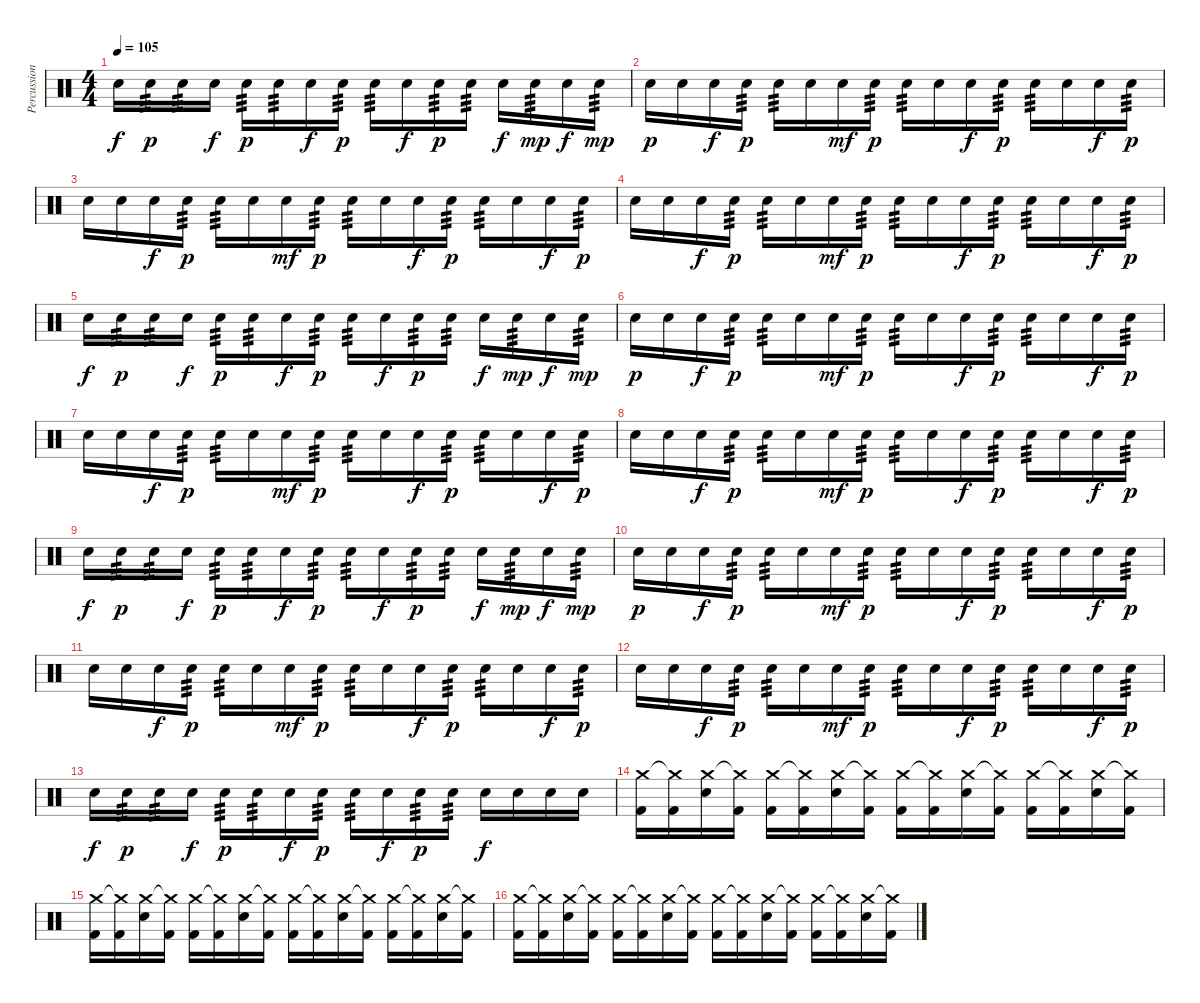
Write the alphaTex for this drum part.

\track ("Percussions" "Percussion") {instrument percussion}
\staff {score}
\articulation defaults
\ts (4 4)
\tempo 105
\clef neutral
\ks c "Electric Snare (hit)".16{dy f} "Electric Snare (hit)".16{tp 3 dy p} "Electric Snare (hit)".16{tp 3} "Electric Snare (hit)".16{dy f} "Electric Snare (hit)".16{tp 3 dy p} "Electric Snare (hit)".16{tp 3} "Electric Snare (hit)".16{dy f} "Electric Snare (hit)".16{tp 3 dy p} "Electric Snare (hit)".16{tp 3} "Electric Snare (hit)".16{dy f} "Electric Snare (hit)".16{tp 3 dy p} "Electric Snare (hit)".16{tp 3} "Electric Snare (hit)".16{dy f} "Electric Snare (hit)".16{tp 3 dy mp} "Electric Snare (hit)".16{dy f} "Electric Snare (hit)".16{tp 3 dy mp}
|
"Electric Snare (hit)".16{dy p} "Electric Snare (hit)".16 "Electric Snare (hit)".16{dy f} "Electric Snare (hit)".16{tp 3 dy p} "Electric Snare (hit)".16{tp 3} "Electric Snare (hit)".16 "Electric Snare (hit)".16{dy mf} "Electric Snare (hit)".16{tp 3 dy p} "Electric Snare (hit)".16{tp 3} "Electric Snare (hit)".16 "Electric Snare (hit)".16{dy f} "Electric Snare (hit)".16{tp 3 dy p} "Electric Snare (hit)".16{tp 3} "Electric Snare (hit)".16 "Electric Snare (hit)".16{dy f} "Electric Snare (hit)".16{tp 3 dy p} |
"Electric Snare (hit)".16 "Electric Snare (hit)".16 "Electric Snare (hit)".16{dy f} "Electric Snare (hit)".16{tp 3 dy p} "Electric Snare (hit)".16{tp 3} "Electric Snare (hit)".16 "Electric Snare (hit)".16{dy mf} "Electric Snare (hit)".16{tp 3 dy p} "Electric Snare (hit)".16{tp 3} "Electric Snare (hit)".16 "Electric Snare (hit)".16{dy f} "Electric Snare (hit)".16{tp 3 dy p} "Electric Snare (hit)".16{tp 3} "Electric Snare (hit)".16 "Electric Snare (hit)".16{dy f} "Electric Snare (hit)".16{tp 3 dy p} |
"Electric Snare (hit)".16 "Electric Snare (hit)".16 "Electric Snare (hit)".16{dy f} "Electric Snare (hit)".16{tp 3 dy p} "Electric Snare (hit)".16{tp 3} "Electric Snare (hit)".16 "Electric Snare (hit)".16{dy mf} "Electric Snare (hit)".16{tp 3 dy p} "Electric Snare (hit)".16{tp 3} "Electric Snare (hit)".16 "Electric Snare (hit)".16{dy f} "Electric Snare (hit)".16{tp 3 dy p} "Electric Snare (hit)".16{tp 3} "Electric Snare (hit)".16 "Electric Snare (hit)".16{dy f} "Electric Snare (hit)".16{tp 3 dy p} |
"Electric Snare (hit)".16{dy f} "Electric Snare (hit)".16{tp 3 dy p} "Electric Snare (hit)".16{tp 3} "Electric Snare (hit)".16{dy f} "Electric Snare (hit)".16{tp 3 dy p} "Electric Snare (hit)".16{tp 3} "Electric Snare (hit)".16{dy f} "Electric Snare (hit)".16{tp 3 dy p} "Electric Snare (hit)".16{tp 3} "Electric Snare (hit)".16{dy f} "Electric Snare (hit)".16{tp 3 dy p} "Electric Snare (hit)".16{tp 3} "Electric Snare (hit)".16{dy f} "Electric Snare (hit)".16{tp 3 dy mp} "Electric Snare (hit)".16{dy f} "Electric Snare (hit)".16{tp 3 dy mp} |
"Electric Snare (hit)".16{dy p} "Electric Snare (hit)".16 "Electric Snare (hit)".16{dy f} "Electric Snare (hit)".16{tp 3 dy p} "Electric Snare (hit)".16{tp 3} "Electric Snare (hit)".16 "Electric Snare (hit)".16{dy mf} "Electric Snare (hit)".16{tp 3 dy p} "Electric Snare (hit)".16{tp 3} "Electric Snare (hit)".16 "Electric Snare (hit)".16{dy f} "Electric Snare (hit)".16{tp 3 dy p} "Electric Snare (hit)".16{tp 3} "Electric Snare (hit)".16 "Electric Snare (hit)".16{dy f} "Electric Snare (hit)".16{tp 3 dy p} |
"Electric Snare (hit)".16 "Electric Snare (hit)".16 "Electric Snare (hit)".16{dy f} "Electric Snare (hit)".16{tp 3 dy p} "Electric Snare (hit)".16{tp 3} "Electric Snare (hit)".16 "Electric Snare (hit)".16{dy mf} "Electric Snare (hit)".16{tp 3 dy p} "Electric Snare (hit)".16{tp 3} "Electric Snare (hit)".16 "Electric Snare (hit)".16{dy f} "Electric Snare (hit)".16{tp 3 dy p} "Electric Snare (hit)".16{tp 3} "Electric Snare (hit)".16 "Electric Snare (hit)".16{dy f} "Electric Snare (hit)".16{tp 3 dy p} |
"Electric Snare (hit)".16 "Electric Snare (hit)".16 "Electric Snare (hit)".16{dy f} "Electric Snare (hit)".16{tp 3 dy p} "Electric Snare (hit)".16{tp 3} "Electric Snare (hit)".16 "Electric Snare (hit)".16{dy mf} "Electric Snare (hit)".16{tp 3 dy p} "Electric Snare (hit)".16{tp 3} "Electric Snare (hit)".16 "Electric Snare (hit)".16{dy f} "Electric Snare (hit)".16{tp 3 dy p} "Electric Snare (hit)".16{tp 3} "Electric Snare (hit)".16 "Electric Snare (hit)".16{dy f} "Electric Snare (hit)".16{tp 3 dy p} |
"Electric Snare (hit)".16{dy f} "Electric Snare (hit)".16{tp 3 dy p} "Electric Snare (hit)".16{tp 3} "Electric Snare (hit)".16{dy f} "Electric Snare (hit)".16{tp 3 dy p} "Electric Snare (hit)".16{tp 3} "Electric Snare (hit)".16{dy f} "Electric Snare (hit)".16{tp 3 dy p} "Electric Snare (hit)".16{tp 3} "Electric Snare (hit)".16{dy f} "Electric Snare (hit)".16{tp 3 dy p} "Electric Snare (hit)".16{tp 3} "Electric Snare (hit)".16{dy f} "Electric Snare (hit)".16{tp 3 dy mp} "Electric Snare (hit)".16{dy f} "Electric Snare (hit)".16{tp 3 dy mp} |
"Electric Snare (hit)".16{dy p} "Electric Snare (hit)".16 "Electric Snare (hit)".16{dy f} "Electric Snare (hit)".16{tp 3 dy p} "Electric Snare (hit)".16{tp 3} "Electric Snare (hit)".16 "Electric Snare (hit)".16{dy mf} "Electric Snare (hit)".16{tp 3 dy p} "Electric Snare (hit)".16{tp 3} "Electric Snare (hit)".16 "Electric Snare (hit)".16{dy f} "Electric Snare (hit)".16{tp 3 dy p} "Electric Snare (hit)".16{tp 3} "Electric Snare (hit)".16 "Electric Snare (hit)".16{dy f} "Electric Snare (hit)".16{tp 3 dy p} |
"Electric Snare (hit)".16 "Electric Snare (hit)".16 "Electric Snare (hit)".16{dy f} "Electric Snare (hit)".16{tp 3 dy p} "Electric Snare (hit)".16{tp 3} "Electric Snare (hit)".16 "Electric Snare (hit)".16{dy mf} "Electric Snare (hit)".16{tp 3 dy p} "Electric Snare (hit)".16{tp 3} "Electric Snare (hit)".16 "Electric Snare (hit)".16{dy f} "Electric Snare (hit)".16{tp 3 dy p} "Electric Snare (hit)".16{tp 3} "Electric Snare (hit)".16 "Electric Snare (hit)".16{dy f} "Electric Snare (hit)".16{tp 3 dy p} |
"Electric Snare (hit)".16 "Electric Snare (hit)".16 "Electric Snare (hit)".16{dy f} "Electric Snare (hit)".16{tp 3 dy p} "Electric Snare (hit)".16{tp 3} "Electric Snare (hit)".16 "Electric Snare (hit)".16{dy mf} "Electric Snare (hit)".16{tp 3 dy p} "Electric Snare (hit)".16{tp 3} "Electric Snare (hit)".16 "Electric Snare (hit)".16{dy f} "Electric Snare (hit)".16{tp 3 dy p} "Electric Snare (hit)".16{tp 3} "Electric Snare (hit)".16 "Electric Snare (hit)".16{dy f} "Electric Snare (hit)".16{tp 3 dy p} |
"Electric Snare (hit)".16{dy f} "Electric Snare (hit)".16{tp 3 dy p} "Electric Snare (hit)".16{tp 3} "Electric Snare (hit)".16{dy f} "Electric Snare (hit)".16{tp 3 dy p} "Electric Snare (hit)".16{tp 3} "Electric Snare (hit)".16{dy f} "Electric Snare (hit)".16{tp 3 dy p} "Electric Snare (hit)".16{tp 3} "Electric Snare (hit)".16{dy f} "Electric Snare (hit)".16{tp 3 dy p} "Electric Snare (hit)".16{tp 3} "Electric Snare (hit)".16{dy f} "Electric Snare (hit)".16 "Electric Snare (hit)".16 "Electric Snare (hit)".16 |
("Kick (hit) 2" "Crash medium (hit)").16 ("Kick (hit) 2" "Crash medium (hit)"{t}).16 ("Electric Snare (hit)" "Crash medium (hit)").16 ("Kick (hit) 2" "Crash medium (hit)"{t}).16 ("Kick (hit) 2" "Crash medium (hit)").16 ("Kick (hit) 2" "Crash medium (hit)"{t}).16 ("Electric Snare (hit)" "Crash medium (hit)").16 ("Kick (hit) 2" "Crash medium (hit)"{t}).16 ("Kick (hit) 2" "Crash medium (hit)").16 ("Kick (hit) 2" "Crash medium (hit)"{t}).16 ("Electric Snare (hit)" "Crash medium (hit)").16 ("Kick (hit) 2" "Crash medium (hit)"{t}).16 ("Kick (hit) 2" "Crash medium (hit)").16 ("Kick (hit) 2" "Crash medium (hit)"{t}).16 ("Electric Snare (hit)" "Crash medium (hit)").16 ("Kick (hit) 2" "Crash medium (hit)"{t}).16 |
("Kick (hit) 2" "Crash medium (hit)").16 ("Kick (hit) 2" "Crash medium (hit)"{t}).16 ("Electric Snare (hit)" "Crash medium (hit)").16 ("Kick (hit) 2" "Crash medium (hit)"{t}).16 ("Kick (hit) 2" "Crash medium (hit)").16 ("Kick (hit) 2" "Crash medium (hit)"{t}).16 ("Electric Snare (hit)" "Crash medium (hit)").16 ("Kick (hit) 2" "Crash medium (hit)"{t}).16 ("Kick (hit) 2" "Crash medium (hit)").16 ("Kick (hit) 2" "Crash medium (hit)"{t}).16 ("Electric Snare (hit)" "Crash medium (hit)").16 ("Kick (hit) 2" "Crash medium (hit)"{t}).16 ("Kick (hit) 2" "Crash medium (hit)").16 ("Kick (hit) 2" "Crash medium (hit)"{t}).16 ("Electric Snare (hit)" "Crash medium (hit)").16 ("Kick (hit) 2" "Crash medium (hit)"{t}).16 |
("Kick (hit) 2" "Crash medium (hit)").16 ("Kick (hit) 2" "Crash medium (hit)"{t}).16 ("Electric Snare (hit)" "Crash medium (hit)").16 ("Kick (hit) 2" "Crash medium (hit)"{t}).16 ("Kick (hit) 2" "Crash medium (hit)").16 ("Kick (hit) 2" "Crash medium (hit)"{t}).16 ("Electric Snare (hit)" "Crash medium (hit)").16 ("Kick (hit) 2" "Crash medium (hit)"{t}).16 ("Kick (hit) 2" "Crash medium (hit)").16 ("Kick (hit) 2" "Crash medium (hit)"{t}).16 ("Electric Snare (hit)" "Crash medium (hit)").16 ("Kick (hit) 2" "Crash medium (hit)"{t}).16 ("Kick (hit) 2" "Crash medium (hit)").16 ("Kick (hit) 2" "Crash medium (hit)"{t}).16 ("Electric Snare (hit)" "Crash medium (hit)").16 ("Kick (hit) 2" "Crash medium (hit)"{t}).16
